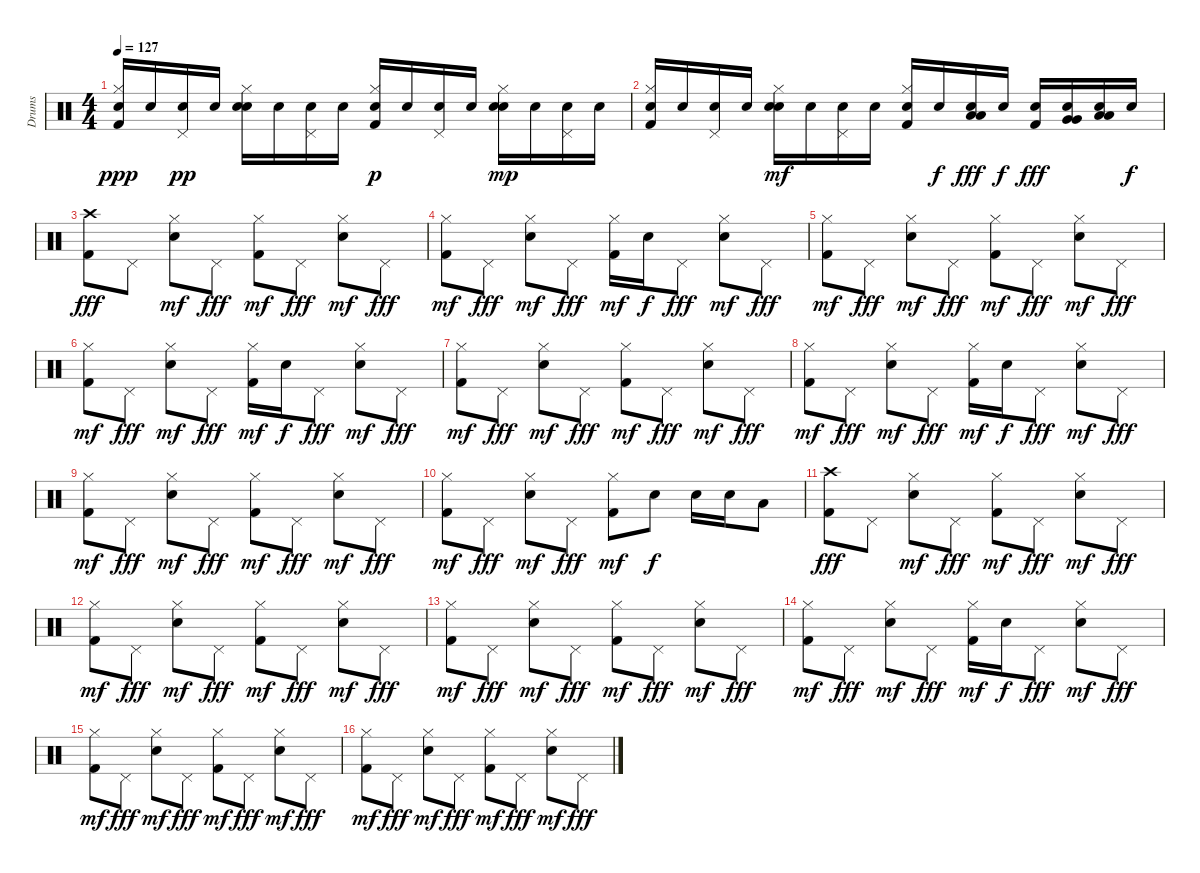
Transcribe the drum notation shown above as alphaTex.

\track ("Drums" "Drums") {instrument percussion}
\staff {score}
\articulation defaults
\ts (4 4)
\tempo 127
\clef neutral
\ks c
("Kick (hit) 2" "Hi-Hat (closed)" "Snare (hit) 2").16{dy ppp} "Snare (hit) 2".16 ("Pedal Hi-Hat (hit)" "Snare (hit) 2").16{dy pp} "Snare (hit) 2".16 ("Hi-Hat (closed)" "Electric Snare (hit)" "Snare (hit) 2").16 "Snare (hit) 2".16 ("Pedal Hi-Hat (hit)" "Snare (hit) 2").16 "Snare (hit) 2".16 ("Kick (hit) 2" "Hi-Hat (closed)" "Snare (hit) 2").16{dy p} "Snare (hit) 2".16 ("Pedal Hi-Hat (hit)" "Snare (hit) 2").16 "Snare (hit) 2".16 ("Hi-Hat (closed)" "Electric Snare (hit)" "Snare (hit) 2").16{dy mp} "Snare (hit) 2".16 ("Pedal Hi-Hat (hit)" "Snare (hit) 2").16 "Snare (hit) 2".16 |
("Kick (hit) 2" "Hi-Hat (closed)" "Snare (hit) 2").16 "Snare (hit) 2".16 ("Pedal Hi-Hat (hit)" "Snare (hit) 2").16 "Snare (hit) 2".16 ("Hi-Hat (closed)" "Electric Snare (hit)" "Snare (hit) 2").16{dy mf} "Snare (hit) 2".16 ("Pedal Hi-Hat (hit)" "Snare (hit) 2").16 "Snare (hit) 2".16 ("Kick (hit) 2" "Hi-Hat (closed)" "Snare (hit) 2").16 "Snare (hit) 2".16{dy f} ("Low Tom (hit)" "Low Tom (hit)" "Snare (hit) 2").16{dy fff} "Snare (hit) 2".16{dy f} ("Kick (hit) 2" "Snare (hit) 2").16{dy fff} ("Very Low Tom (hit)" "Very Low Tom (hit)" "Snare (hit) 2").16 ("Low Floor Tom (hit)" "Low Floor Tom (hit)" "Snare (hit) 2").16 "Snare (hit) 2".16{dy f} |
("Kick (hit) 2" "Crash high (hit)").8{dy fff} "Pedal Hi-Hat (hit)".8 ("Hi-Hat (closed)" "Electric Snare (hit)").8{dy mf} "Pedal Hi-Hat (hit)".8{dy fff} ("Kick (hit) 2" "Hi-Hat (closed)").8{dy mf} "Pedal Hi-Hat (hit)".8{dy fff} ("Hi-Hat (closed)" "Electric Snare (hit)").8{dy mf} "Pedal Hi-Hat (hit)".8{dy fff} |
("Kick (hit) 2" "Hi-Hat (closed)").8{dy mf} "Pedal Hi-Hat (hit)".8{dy fff} ("Hi-Hat (closed)" "Electric Snare (hit)").8{dy mf} "Pedal Hi-Hat (hit)".8{dy fff} ("Kick (hit) 2" "Hi-Hat (closed)").16{dy mf} "Electric Snare (hit)".16{dy f} "Pedal Hi-Hat (hit)".8{dy fff} ("Hi-Hat (closed)" "Electric Snare (hit)").8{dy mf} "Pedal Hi-Hat (hit)".8{dy fff} |
("Kick (hit) 2" "Hi-Hat (closed)").8{dy mf} "Pedal Hi-Hat (hit)".8{dy fff} ("Hi-Hat (closed)" "Electric Snare (hit)").8{dy mf} "Pedal Hi-Hat (hit)".8{dy fff} ("Kick (hit) 2" "Hi-Hat (closed)").8{dy mf} "Pedal Hi-Hat (hit)".8{dy fff} ("Hi-Hat (closed)" "Electric Snare (hit)").8{dy mf} "Pedal Hi-Hat (hit)".8{dy fff} |
("Kick (hit) 2" "Hi-Hat (closed)").8{dy mf} "Pedal Hi-Hat (hit)".8{dy fff} ("Hi-Hat (closed)" "Electric Snare (hit)").8{dy mf} "Pedal Hi-Hat (hit)".8{dy fff} ("Kick (hit) 2" "Hi-Hat (closed)").16{dy mf} "Electric Snare (hit)".16{dy f} "Pedal Hi-Hat (hit)".8{dy fff} ("Hi-Hat (closed)" "Electric Snare (hit)").8{dy mf} "Pedal Hi-Hat (hit)".8{dy fff} |
("Kick (hit) 2" "Hi-Hat (closed)").8{dy mf} "Pedal Hi-Hat (hit)".8{dy fff} ("Hi-Hat (closed)" "Electric Snare (hit)").8{dy mf} "Pedal Hi-Hat (hit)".8{dy fff} ("Kick (hit) 2" "Hi-Hat (closed)").8{dy mf} "Pedal Hi-Hat (hit)".8{dy fff} ("Hi-Hat (closed)" "Electric Snare (hit)").8{dy mf} "Pedal Hi-Hat (hit)".8{dy fff} |
("Kick (hit) 2" "Hi-Hat (closed)").8{dy mf} "Pedal Hi-Hat (hit)".8{dy fff} ("Hi-Hat (closed)" "Electric Snare (hit)").8{dy mf} "Pedal Hi-Hat (hit)".8{dy fff} ("Kick (hit) 2" "Hi-Hat (closed)").16{dy mf} "Electric Snare (hit)".16{dy f} "Pedal Hi-Hat (hit)".8{dy fff} ("Hi-Hat (closed)" "Electric Snare (hit)").8{dy mf} "Pedal Hi-Hat (hit)".8{dy fff} |
("Kick (hit) 2" "Hi-Hat (closed)").8{dy mf} "Pedal Hi-Hat (hit)".8{dy fff} ("Hi-Hat (closed)" "Electric Snare (hit)").8{dy mf} "Pedal Hi-Hat (hit)".8{dy fff} ("Kick (hit) 2" "Hi-Hat (closed)").8{dy mf} "Pedal Hi-Hat (hit)".8{dy fff} ("Hi-Hat (closed)" "Electric Snare (hit)").8{dy mf} "Pedal Hi-Hat (hit)".8{dy fff} |
("Kick (hit) 2" "Hi-Hat (closed)").8{dy mf} "Pedal Hi-Hat (hit)".8{dy fff} ("Hi-Hat (closed)" "Electric Snare (hit)").8{dy mf} "Pedal Hi-Hat (hit)".8{dy fff} ("Kick (hit) 2" "Hi-Hat (closed)").8{dy mf} "Electric Snare (hit)".8{dy f} "Electric Snare (hit)".16 "Electric Snare (hit)".16 "Low Floor Tom (hit)".8 |
("Kick (hit) 2" "Crash high (hit)").8{dy fff} "Pedal Hi-Hat (hit)".8 ("Hi-Hat (closed)" "Electric Snare (hit)").8{dy mf} "Pedal Hi-Hat (hit)".8{dy fff} ("Kick (hit) 2" "Hi-Hat (closed)").8{dy mf} "Pedal Hi-Hat (hit)".8{dy fff} ("Hi-Hat (closed)" "Electric Snare (hit)").8{dy mf} "Pedal Hi-Hat (hit)".8{dy fff} |
("Kick (hit) 2" "Hi-Hat (closed)").8{dy mf} "Pedal Hi-Hat (hit)".8{dy fff} ("Hi-Hat (closed)" "Electric Snare (hit)").8{dy mf} "Pedal Hi-Hat (hit)".8{dy fff} ("Kick (hit) 2" "Hi-Hat (closed)").8{dy mf} "Pedal Hi-Hat (hit)".8{dy fff} ("Hi-Hat (closed)" "Electric Snare (hit)").8{dy mf} "Pedal Hi-Hat (hit)".8{dy fff} |
("Kick (hit) 2" "Hi-Hat (closed)").8{dy mf} "Pedal Hi-Hat (hit)".8{dy fff} ("Hi-Hat (closed)" "Electric Snare (hit)").8{dy mf} "Pedal Hi-Hat (hit)".8{dy fff} ("Kick (hit) 2" "Hi-Hat (closed)").8{dy mf} "Pedal Hi-Hat (hit)".8{dy fff} ("Hi-Hat (closed)" "Electric Snare (hit)").8{dy mf} "Pedal Hi-Hat (hit)".8{dy fff} |
("Kick (hit) 2" "Hi-Hat (closed)").8{dy mf} "Pedal Hi-Hat (hit)".8{dy fff} ("Hi-Hat (closed)" "Electric Snare (hit)").8{dy mf} "Pedal Hi-Hat (hit)".8{dy fff} ("Kick (hit) 2" "Hi-Hat (closed)").16{dy mf} "Electric Snare (hit)".16{dy f} "Pedal Hi-Hat (hit)".8{dy fff} ("Hi-Hat (closed)" "Electric Snare (hit)").8{dy mf} "Pedal Hi-Hat (hit)".8{dy fff} |
("Kick (hit) 2" "Hi-Hat (closed)").8{dy mf} "Pedal Hi-Hat (hit)".8{dy fff} ("Hi-Hat (closed)" "Electric Snare (hit)").8{dy mf} "Pedal Hi-Hat (hit)".8{dy fff} ("Kick (hit) 2" "Hi-Hat (closed)").8{dy mf} "Pedal Hi-Hat (hit)".8{dy fff} ("Hi-Hat (closed)" "Electric Snare (hit)").8{dy mf} "Pedal Hi-Hat (hit)".8{dy fff} |
("Kick (hit) 2" "Hi-Hat (closed)").8{dy mf} "Pedal Hi-Hat (hit)".8{dy fff} ("Hi-Hat (closed)" "Electric Snare (hit)").8{dy mf} "Pedal Hi-Hat (hit)".8{dy fff} ("Kick (hit) 2" "Hi-Hat (closed)").8{dy mf} "Pedal Hi-Hat (hit)".8{dy fff} ("Hi-Hat (closed)" "Electric Snare (hit)").8{dy mf} "Pedal Hi-Hat (hit)".8{dy fff}
